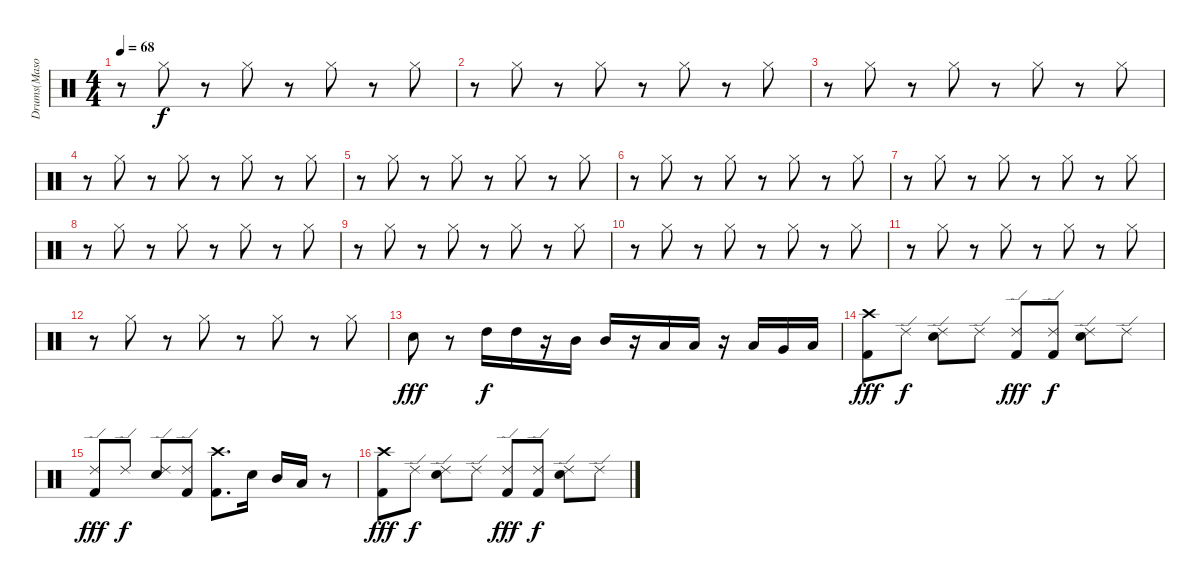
\track ("Drums(Mason)" "Drums(Maso") {instrument percussion}
\staff {score}
\articulation defaults
\ts (4 4)
\tempo 68
\clef neutral
\ks c
r.8{dy f} "Hi-Hat (closed)".8 r.8 "Hi-Hat (closed)".8 r.8 "Hi-Hat (closed)".8 r.8 "Hi-Hat (closed)".8 |
r.8 "Hi-Hat (closed)".8 r.8 "Hi-Hat (closed)".8 r.8 "Hi-Hat (closed)".8 r.8 "Hi-Hat (closed)".8 |
r.8 "Hi-Hat (closed)".8 r.8 "Hi-Hat (closed)".8 r.8 "Hi-Hat (closed)".8 r.8 "Hi-Hat (closed)".8 |
r.8 "Hi-Hat (closed)".8 r.8 "Hi-Hat (closed)".8 r.8 "Hi-Hat (closed)".8 r.8 "Hi-Hat (closed)".8 |
r.8 "Hi-Hat (closed)".8 r.8 "Hi-Hat (closed)".8 r.8 "Hi-Hat (closed)".8 r.8 "Hi-Hat (closed)".8 |
r.8 "Hi-Hat (closed)".8 r.8 "Hi-Hat (closed)".8 r.8 "Hi-Hat (closed)".8 r.8 "Hi-Hat (closed)".8 |
r.8 "Hi-Hat (closed)".8 r.8 "Hi-Hat (closed)".8 r.8 "Hi-Hat (closed)".8 r.8 "Hi-Hat (closed)".8 |
r.8 "Hi-Hat (closed)".8 r.8 "Hi-Hat (closed)".8 r.8 "Hi-Hat (closed)".8 r.8 "Hi-Hat (closed)".8 |
r.8 "Hi-Hat (closed)".8 r.8 "Hi-Hat (closed)".8 r.8 "Hi-Hat (closed)".8 r.8 "Hi-Hat (closed)".8 |
r.8 "Hi-Hat (closed)".8 r.8 "Hi-Hat (closed)".8 r.8 "Hi-Hat (closed)".8 r.8 "Hi-Hat (closed)".8 |
r.8 "Hi-Hat (closed)".8 r.8 "Hi-Hat (closed)".8 r.8 "Hi-Hat (closed)".8 r.8 "Hi-Hat (closed)".8 |
r.8 "Hi-Hat (closed)".8 r.8 "Hi-Hat (closed)".8 r.8 "Hi-Hat (closed)".8 r.8 "Hi-Hat (closed)".8 |
"Electric Snare (hit)".8{dy fff} r.8 "High Tom (hit)".16{dy f} "High Tom (hit)".16 r.16 "Mid Tom (hit)".16 "Mid Tom (hit)".16 r.16 "Low Tom (hit)".16 "Low Tom (hit)".16 r.16 "Low Tom (hit)".16 "Very Low Tom (hit)".16 "Low Floor Tom (hit)".16 |
("Crash high (hit)" "Kick (hit) 2").8{dy fff} "Ride (edge) 2".8{dy f} ("Ride (edge) 2" "Electric Snare (hit)").8 "Ride (edge) 2".8 ("Ride (edge) 2" "Kick (hit) 2").8{dy fff} ("Ride (edge) 2" "Kick (hit) 2").8{dy f} ("Ride (edge) 2" "Electric Snare (hit)").8 "Ride (edge) 2".8 |
("Ride (edge) 2" "Kick (hit) 2").8{dy fff} "Ride (edge) 2".8{dy f} ("Ride (edge) 2" "Electric Snare (hit)").8 ("Ride (edge) 2" "Kick (hit) 2").8 ("Crash high (hit)" "Kick (hit) 2").8{d} "Electric Snare (hit)".16 "Mid Tom (hit)".16 "Low Tom (hit)".16 r.8 |
("Crash high (hit)" "Kick (hit) 2").8{dy fff} "Ride (edge) 2".8{dy f} ("Ride (edge) 2" "Electric Snare (hit)").8 "Ride (edge) 2".8 ("Ride (edge) 2" "Kick (hit) 2").8{dy fff} ("Ride (edge) 2" "Kick (hit) 2").8{dy f} ("Ride (edge) 2" "Electric Snare (hit)").8 "Ride (edge) 2".8
